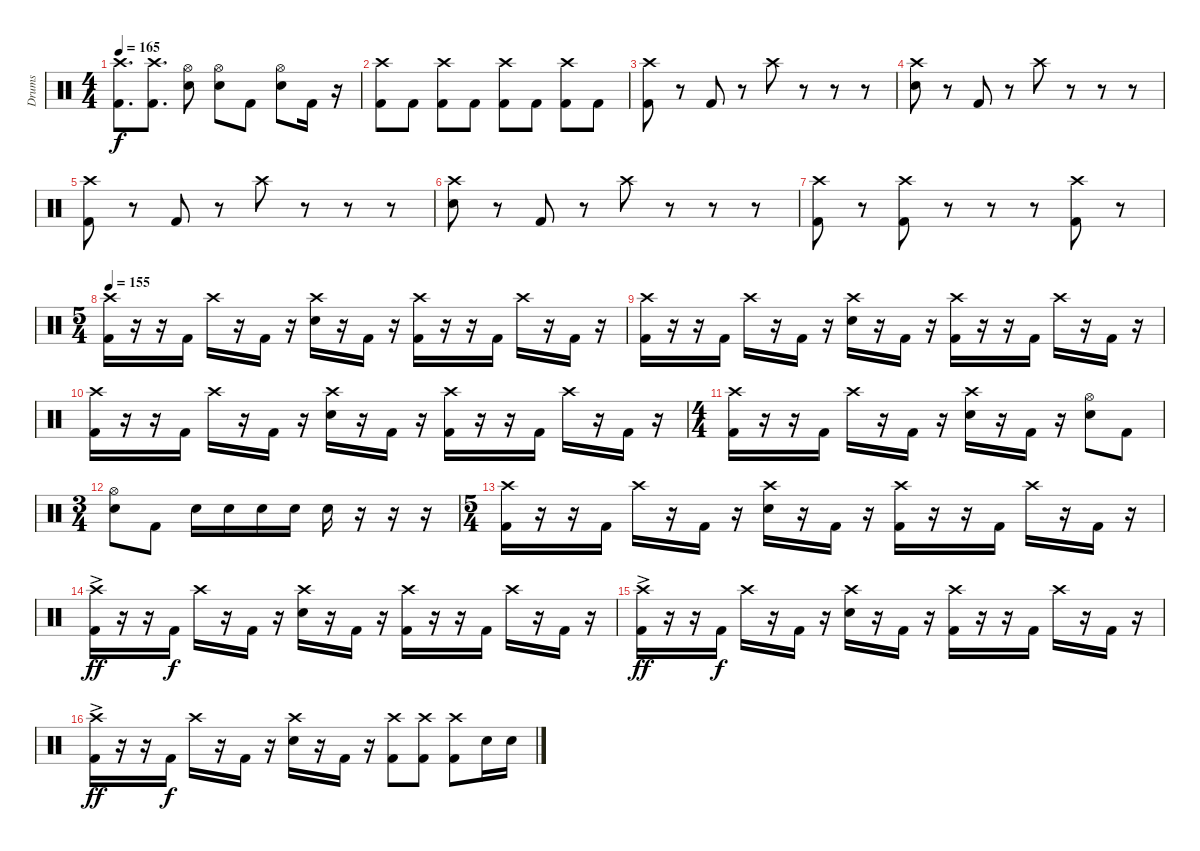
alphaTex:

\track ("Drums" "Drums") {instrument percussion}
\staff {score}
\articulation defaults
\ts (4 4)
\tempo 165
\clef neutral
\ks c
("Kick (hit) 2" "Crash high (hit)").8{d dy f} ("Kick (hit) 2" "Crash high (hit)").8{d} ("Electric Snare (hit)" "Hi-Hat (open)").8 ("Electric Snare (hit)" "Hi-Hat (open)").8 "Kick (hit) 2".8 ("Electric Snare (hit)" "Hi-Hat (open)").8 "Kick (hit) 2".16 r.16 |
("Kick (hit) 2" "Crash high (hit)").8 "Kick (hit) 2".8 ("Kick (hit) 2" "Crash high (hit)").8 "Kick (hit) 2".8 ("Kick (hit) 2" "Crash high (hit)").8 "Kick (hit) 2".8 ("Kick (hit) 2" "Crash high (hit)").8 "Kick (hit) 2".8 |
("Kick (hit) 2" "Crash high (hit)").8 r.8 "Kick (hit) 2".8 r.8 "Crash high (hit)".8 r.8 r.8 r.8 |
("Electric Snare (hit)" "Crash high (hit)").8 r.8 "Kick (hit) 2".8 r.8 "Crash high (hit)".8 r.8 r.8 r.8 |
("Kick (hit) 2" "Crash high (hit)").8 r.8 "Kick (hit) 2".8 r.8 "Crash high (hit)".8 r.8 r.8 r.8 |
("Electric Snare (hit)" "Crash high (hit)").8 r.8 "Kick (hit) 2".8 r.8 "Crash high (hit)".8 r.8 r.8 r.8 |
("Kick (hit) 2" "Crash high (hit)").8 r.8 ("Kick (hit) 2" "Crash high (hit)").8 r.8 r.8 r.8 ("Kick (hit) 2" "Crash high (hit)").8 r.8 |
\ts (5 4)
\tempo 155
("Kick (hit) 2" "Crash high (hit)").16 r.16 r.16 "Kick (hit) 2".16 "Crash high (hit)".16 r.16 "Kick (hit) 2".16 r.16 ("Electric Snare (hit)" "Crash high (hit)").16 r.16 "Kick (hit) 2".16 r.16 ("Kick (hit) 2" "Crash high (hit)").16 r.16 r.16 "Kick (hit) 2".16 "Crash high (hit)".16 r.16 "Kick (hit) 2".16 r.16 |
("Kick (hit) 2" "Crash high (hit)").16 r.16 r.16 "Kick (hit) 2".16 "Crash high (hit)".16 r.16 "Kick (hit) 2".16 r.16 ("Electric Snare (hit)" "Crash high (hit)").16 r.16 "Kick (hit) 2".16 r.16 ("Kick (hit) 2" "Crash high (hit)").16 r.16 r.16 "Kick (hit) 2".16 "Crash high (hit)".16 r.16 "Kick (hit) 2".16 r.16 |
("Kick (hit) 2" "Crash high (hit)").16 r.16 r.16 "Kick (hit) 2".16 "Crash high (hit)".16 r.16 "Kick (hit) 2".16 r.16 ("Electric Snare (hit)" "Crash high (hit)").16 r.16 "Kick (hit) 2".16 r.16 ("Kick (hit) 2" "Crash high (hit)").16 r.16 r.16 "Kick (hit) 2".16 "Crash high (hit)".16 r.16 "Kick (hit) 2".16 r.16 |
\ts (4 4)
("Kick (hit) 2" "Crash high (hit)").16 r.16 r.16 "Kick (hit) 2".16 "Crash high (hit)".16 r.16 "Kick (hit) 2".16 r.16 ("Electric Snare (hit)" "Crash high (hit)").16 r.16 "Kick (hit) 2".16 r.16 ("Electric Snare (hit)" "Hi-Hat (open)").8 "Kick (hit) 2".8 |
\ts (3 4)
("Electric Snare (hit)" "Hi-Hat (open)").8 "Kick (hit) 2".8 "Electric Snare (hit)".16 "Electric Snare (hit)".16 "Electric Snare (hit)".16 "Electric Snare (hit)".16 "Electric Snare (hit)".16 r.16 r.16 r.16 |
\ts (5 4)
("Kick (hit) 2" "Crash high (hit)").16 r.16 r.16 "Kick (hit) 2".16 "Crash high (hit)".16 r.16 "Kick (hit) 2".16 r.16 ("Electric Snare (hit)" "Crash high (hit)").16 r.16 "Kick (hit) 2".16 r.16 ("Kick (hit) 2" "Crash high (hit)").16 r.16 r.16 "Kick (hit) 2".16 "Crash high (hit)".16 r.16 "Kick (hit) 2".16 r.16 |
("Kick (hit) 2" "Crash high (hit)"{ac}).16{dy ff} r.16 r.16 "Kick (hit) 2".16{dy f} "Crash high (hit)".16 r.16 "Kick (hit) 2".16 r.16 ("Electric Snare (hit)" "Crash high (hit)").16 r.16 "Kick (hit) 2".16 r.16 ("Kick (hit) 2" "Crash high (hit)").16 r.16 r.16 "Kick (hit) 2".16 "Crash high (hit)".16 r.16 "Kick (hit) 2".16 r.16 |
("Kick (hit) 2" "Crash high (hit)"{ac}).16{dy ff} r.16 r.16 "Kick (hit) 2".16{dy f} "Crash high (hit)".16 r.16 "Kick (hit) 2".16 r.16 ("Electric Snare (hit)" "Crash high (hit)").16 r.16 "Kick (hit) 2".16 r.16 ("Kick (hit) 2" "Crash high (hit)").16 r.16 r.16 "Kick (hit) 2".16 "Crash high (hit)".16 r.16 "Kick (hit) 2".16 r.16 |
("Kick (hit) 2" "Crash high (hit)"{ac}).16{dy ff} r.16 r.16 "Kick (hit) 2".16{dy f} "Crash high (hit)".16 r.16 "Kick (hit) 2".16 r.16 ("Electric Snare (hit)" "Crash high (hit)").16 r.16 "Kick (hit) 2".16 r.16 ("Kick (hit) 2" "Crash high (hit)").8 ("Kick (hit) 2" "Crash high (hit)").8 ("Kick (hit) 2" "Crash high (hit)").8 "Electric Snare (hit)".16 "Electric Snare (hit)".16
